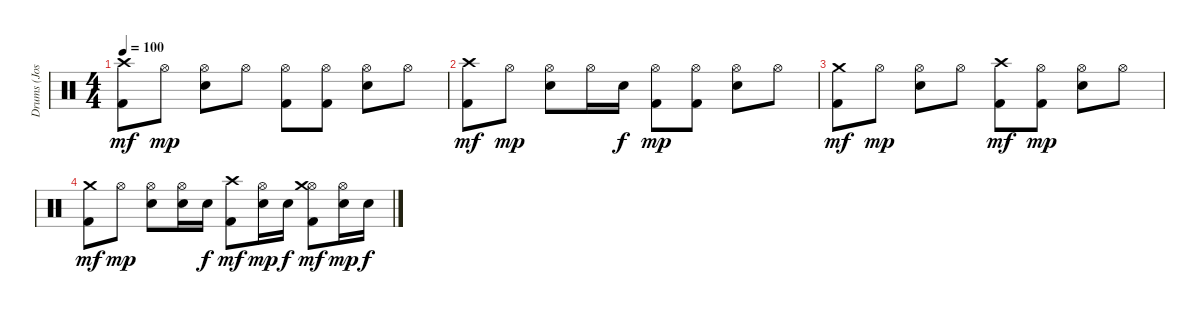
\track ("Drums (Josh Freese)" "Drums (Jos") {instrument percussion}
\staff {score}
\articulation defaults
\ts (4 4)
\tempo 100
\clef neutral
\ks c
("Crash high (hit)" "Kick (hit) 2").8{dy mf} "Hi-Hat (open)".8{dy mp} ("Hi-Hat (open)" "Electric Snare (hit)").8 "Hi-Hat (open)".8 ("Hi-Hat (open)" "Kick (hit) 2").8 ("Hi-Hat (open)" "Kick (hit) 2").8 ("Hi-Hat (open)" "Electric Snare (hit)").8 "Hi-Hat (open)".8 |
("Crash high (hit)" "Kick (hit) 2").8{dy mf} "Hi-Hat (open)".8{dy mp} ("Hi-Hat (open)" "Electric Snare (hit)").8 "Hi-Hat (open)".16 "Electric Snare (hit)".16{dy f} ("Hi-Hat (open)" "Kick (hit) 2").8{dy mp} ("Hi-Hat (open)" "Kick (hit) 2").8 ("Hi-Hat (open)" "Electric Snare (hit)").8 "Hi-Hat (open)".8 |
("Crash medium (hit)" "Kick (hit) 2").8{dy mf} "Hi-Hat (open)".8{dy mp} ("Hi-Hat (open)" "Electric Snare (hit)").8 "Hi-Hat (open)".8 ("Crash high (hit)" "Kick (hit) 2").8{dy mf} ("Hi-Hat (open)" "Kick (hit) 2").8{dy mp} ("Hi-Hat (open)" "Electric Snare (hit)").8 "Hi-Hat (open)".8 |
("Crash medium (hit)" "Kick (hit) 2").8{dy mf} "Hi-Hat (open)".8{dy mp} ("Hi-Hat (open)" "Electric Snare (hit)").8 ("Hi-Hat (open)" "Electric Snare (hit)").16 "Electric Snare (hit)".16{dy f} ("Crash high (hit)" "Kick (hit) 2").8{dy mf} ("Hi-Hat (open)" "Electric Snare (hit)").16{dy mp} "Electric Snare (hit)".16{dy f} ("Hi-Hat (open)" "Crash medium (hit)" "Kick (hit) 2").8{dy mf} ("Hi-Hat (open)" "Electric Snare (hit)").16{dy mp} "Electric Snare (hit)".16{dy f}
